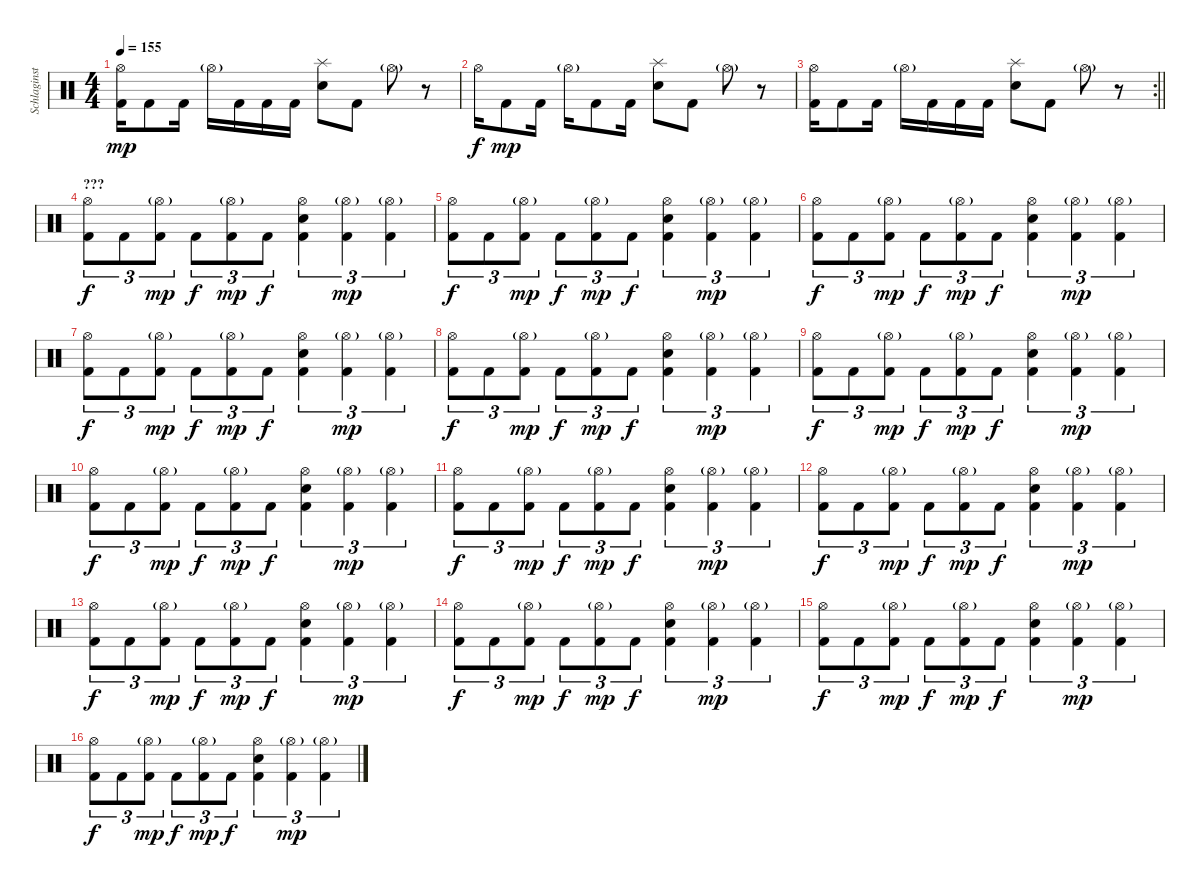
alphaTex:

\track ("Schlaginstrumente - Auswahl" "Schlaginst") {instrument percussion}
\staff {score}
\articulation defaults
\ts (4 4)
\tempo 155
\clef neutral
\ks c
("Hi-Hat (open)" "Kick (hit) 2").16{dy mp} "Kick (hit) 2".8 "Kick (hit) 2".16 "Hi-Hat (open)"{g}.16 "Kick (hit) 2".16 "Kick (hit) 2".16 "Kick (hit) 2".16 ("Splash (hit)" "Snare (hit) 2").8 "Kick (hit) 2".8 "Hi-Hat (open)"{g}.8 r.8 |
"Hi-Hat (open)".16{dy f} "Kick (hit) 2".8{dy mp} "Kick (hit) 2".16 "Hi-Hat (open)"{g}.16 "Kick (hit) 2".8 "Kick (hit) 2".16 ("Splash (hit)" "Snare (hit) 2").8 "Kick (hit) 2".8 "Hi-Hat (open)"{g}.8 r.8 |
\rc 2
\barLineRight lightlight
("Hi-Hat (open)" "Kick (hit) 2").16 "Kick (hit) 2".8 "Kick (hit) 2".16 "Hi-Hat (open)"{g}.16 "Kick (hit) 2".16 "Kick (hit) 2".16 "Kick (hit) 2".16 ("Splash (hit)" "Snare (hit) 2").8 "Kick (hit) 2".8 "Hi-Hat (open)"{g}.8 r.8 |
\section ("" "???")
("Hi-Hat (open)" "Kick (hit) 2").8{tu (3 2) dy f} "Kick (hit) 2".8{tu (3 2)} ("Hi-Hat (open)"{g} "Kick (hit) 2").8{tu (3 2) dy mp} "Kick (hit) 2".8{tu (3 2) dy f} ("Hi-Hat (open)"{g} "Kick (hit) 2").8{tu (3 2) dy mp} "Kick (hit) 2".8{tu (3 2) dy f} ("Hi-Hat (open)" "Snare (hit) 2" "Kick (hit) 2").4{tu (3 2)} ("Hi-Hat (open)"{g} "Kick (hit) 2").4{tu (3 2) dy mp} ("Hi-Hat (open)"{g} "Kick (hit) 2").4{tu (3 2)} |
("Hi-Hat (open)" "Kick (hit) 2").8{tu (3 2) dy f} "Kick (hit) 2".8{tu (3 2)} ("Hi-Hat (open)"{g} "Kick (hit) 2").8{tu (3 2) dy mp} "Kick (hit) 2".8{tu (3 2) dy f} ("Hi-Hat (open)"{g} "Kick (hit) 2").8{tu (3 2) dy mp} "Kick (hit) 2".8{tu (3 2) dy f} ("Hi-Hat (open)" "Snare (hit) 2" "Kick (hit) 2").4{tu (3 2)} ("Hi-Hat (open)"{g} "Kick (hit) 2").4{tu (3 2) dy mp} ("Hi-Hat (open)"{g} "Kick (hit) 2").4{tu (3 2)} |
("Hi-Hat (open)" "Kick (hit) 2").8{tu (3 2) dy f} "Kick (hit) 2".8{tu (3 2)} ("Hi-Hat (open)"{g} "Kick (hit) 2").8{tu (3 2) dy mp} "Kick (hit) 2".8{tu (3 2) dy f} ("Hi-Hat (open)"{g} "Kick (hit) 2").8{tu (3 2) dy mp} "Kick (hit) 2".8{tu (3 2) dy f} ("Hi-Hat (open)" "Snare (hit) 2" "Kick (hit) 2").4{tu (3 2)} ("Hi-Hat (open)"{g} "Kick (hit) 2").4{tu (3 2) dy mp} ("Hi-Hat (open)"{g} "Kick (hit) 2").4{tu (3 2)} |
("Hi-Hat (open)" "Kick (hit) 2").8{tu (3 2) dy f} "Kick (hit) 2".8{tu (3 2)} ("Hi-Hat (open)"{g} "Kick (hit) 2").8{tu (3 2) dy mp} "Kick (hit) 2".8{tu (3 2) dy f} ("Hi-Hat (open)"{g} "Kick (hit) 2").8{tu (3 2) dy mp} "Kick (hit) 2".8{tu (3 2) dy f} ("Hi-Hat (open)" "Snare (hit) 2" "Kick (hit) 2").4{tu (3 2)} ("Hi-Hat (open)"{g} "Kick (hit) 2").4{tu (3 2) dy mp} ("Hi-Hat (open)"{g} "Kick (hit) 2").4{tu (3 2)} |
("Hi-Hat (open)" "Kick (hit) 2").8{tu (3 2) dy f} "Kick (hit) 2".8{tu (3 2)} ("Hi-Hat (open)"{g} "Kick (hit) 2").8{tu (3 2) dy mp} "Kick (hit) 2".8{tu (3 2) dy f} ("Hi-Hat (open)"{g} "Kick (hit) 2").8{tu (3 2) dy mp} "Kick (hit) 2".8{tu (3 2) dy f} ("Hi-Hat (open)" "Snare (hit) 2" "Kick (hit) 2").4{tu (3 2)} ("Hi-Hat (open)"{g} "Kick (hit) 2").4{tu (3 2) dy mp} ("Hi-Hat (open)"{g} "Kick (hit) 2").4{tu (3 2)} |
("Hi-Hat (open)" "Kick (hit) 2").8{tu (3 2) dy f} "Kick (hit) 2".8{tu (3 2)} ("Hi-Hat (open)"{g} "Kick (hit) 2").8{tu (3 2) dy mp} "Kick (hit) 2".8{tu (3 2) dy f} ("Hi-Hat (open)"{g} "Kick (hit) 2").8{tu (3 2) dy mp} "Kick (hit) 2".8{tu (3 2) dy f} ("Hi-Hat (open)" "Snare (hit) 2" "Kick (hit) 2").4{tu (3 2)} ("Hi-Hat (open)"{g} "Kick (hit) 2").4{tu (3 2) dy mp} ("Hi-Hat (open)"{g} "Kick (hit) 2").4{tu (3 2)} |
("Hi-Hat (open)" "Kick (hit) 2").8{tu (3 2) dy f} "Kick (hit) 2".8{tu (3 2)} ("Hi-Hat (open)"{g} "Kick (hit) 2").8{tu (3 2) dy mp} "Kick (hit) 2".8{tu (3 2) dy f} ("Hi-Hat (open)"{g} "Kick (hit) 2").8{tu (3 2) dy mp} "Kick (hit) 2".8{tu (3 2) dy f} ("Hi-Hat (open)" "Snare (hit) 2" "Kick (hit) 2").4{tu (3 2)} ("Hi-Hat (open)"{g} "Kick (hit) 2").4{tu (3 2) dy mp} ("Hi-Hat (open)"{g} "Kick (hit) 2").4{tu (3 2)} |
("Hi-Hat (open)" "Kick (hit) 2").8{tu (3 2) dy f} "Kick (hit) 2".8{tu (3 2)} ("Hi-Hat (open)"{g} "Kick (hit) 2").8{tu (3 2) dy mp} "Kick (hit) 2".8{tu (3 2) dy f} ("Hi-Hat (open)"{g} "Kick (hit) 2").8{tu (3 2) dy mp} "Kick (hit) 2".8{tu (3 2) dy f} ("Hi-Hat (open)" "Snare (hit) 2" "Kick (hit) 2").4{tu (3 2)} ("Hi-Hat (open)"{g} "Kick (hit) 2").4{tu (3 2) dy mp} ("Hi-Hat (open)"{g} "Kick (hit) 2").4{tu (3 2)} |
("Hi-Hat (open)" "Kick (hit) 2").8{tu (3 2) dy f} "Kick (hit) 2".8{tu (3 2)} ("Hi-Hat (open)"{g} "Kick (hit) 2").8{tu (3 2) dy mp} "Kick (hit) 2".8{tu (3 2) dy f} ("Hi-Hat (open)"{g} "Kick (hit) 2").8{tu (3 2) dy mp} "Kick (hit) 2".8{tu (3 2) dy f} ("Hi-Hat (open)" "Snare (hit) 2" "Kick (hit) 2").4{tu (3 2)} ("Hi-Hat (open)"{g} "Kick (hit) 2").4{tu (3 2) dy mp} ("Hi-Hat (open)"{g} "Kick (hit) 2").4{tu (3 2)} |
("Hi-Hat (open)" "Kick (hit) 2").8{tu (3 2) dy f} "Kick (hit) 2".8{tu (3 2)} ("Hi-Hat (open)"{g} "Kick (hit) 2").8{tu (3 2) dy mp} "Kick (hit) 2".8{tu (3 2) dy f} ("Hi-Hat (open)"{g} "Kick (hit) 2").8{tu (3 2) dy mp} "Kick (hit) 2".8{tu (3 2) dy f} ("Hi-Hat (open)" "Snare (hit) 2" "Kick (hit) 2").4{tu (3 2)} ("Hi-Hat (open)"{g} "Kick (hit) 2").4{tu (3 2) dy mp} ("Hi-Hat (open)"{g} "Kick (hit) 2").4{tu (3 2)} |
("Hi-Hat (open)" "Kick (hit) 2").8{tu (3 2) dy f} "Kick (hit) 2".8{tu (3 2)} ("Hi-Hat (open)"{g} "Kick (hit) 2").8{tu (3 2) dy mp} "Kick (hit) 2".8{tu (3 2) dy f} ("Hi-Hat (open)"{g} "Kick (hit) 2").8{tu (3 2) dy mp} "Kick (hit) 2".8{tu (3 2) dy f} ("Hi-Hat (open)" "Snare (hit) 2" "Kick (hit) 2").4{tu (3 2)} ("Hi-Hat (open)"{g} "Kick (hit) 2").4{tu (3 2) dy mp} ("Hi-Hat (open)"{g} "Kick (hit) 2").4{tu (3 2)} |
("Hi-Hat (open)" "Kick (hit) 2").8{tu (3 2) dy f} "Kick (hit) 2".8{tu (3 2)} ("Hi-Hat (open)"{g} "Kick (hit) 2").8{tu (3 2) dy mp} "Kick (hit) 2".8{tu (3 2) dy f} ("Hi-Hat (open)"{g} "Kick (hit) 2").8{tu (3 2) dy mp} "Kick (hit) 2".8{tu (3 2) dy f} ("Hi-Hat (open)" "Snare (hit) 2" "Kick (hit) 2").4{tu (3 2)} ("Hi-Hat (open)"{g} "Kick (hit) 2").4{tu (3 2) dy mp} ("Hi-Hat (open)"{g} "Kick (hit) 2").4{tu (3 2)} |
("Hi-Hat (open)" "Kick (hit) 2").8{tu (3 2) dy f} "Kick (hit) 2".8{tu (3 2)} ("Hi-Hat (open)"{g} "Kick (hit) 2").8{tu (3 2) dy mp} "Kick (hit) 2".8{tu (3 2) dy f} ("Hi-Hat (open)"{g} "Kick (hit) 2").8{tu (3 2) dy mp} "Kick (hit) 2".8{tu (3 2) dy f} ("Hi-Hat (open)" "Snare (hit) 2" "Kick (hit) 2").4{tu (3 2)} ("Hi-Hat (open)"{g} "Kick (hit) 2").4{tu (3 2) dy mp} ("Hi-Hat (open)"{g} "Kick (hit) 2").4{tu (3 2)}
